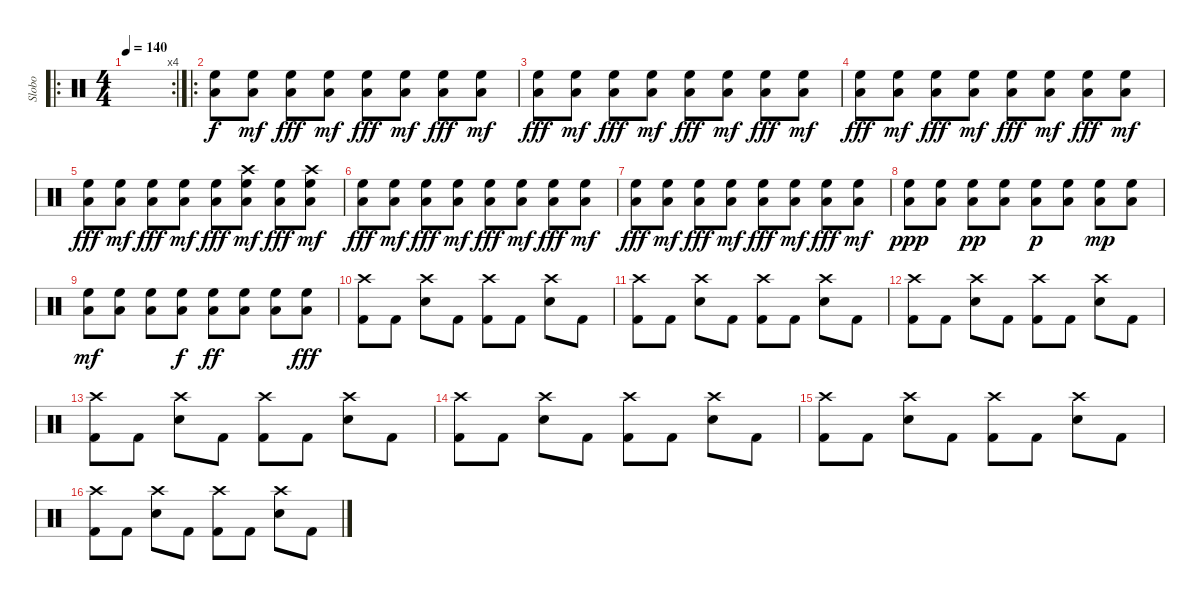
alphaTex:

\track ("Slobo" "Slobo") {instrument percussion}
\staff {score}
\articulation defaults
\ro
\rc 4
\ts (4 4)
\tempo 140
\clef neutral
\ks c
|
\ro
("High Floor Tom (hit)" "Low Floor Tom (hit)").8 ("High Floor Tom (hit)" "Low Floor Tom (hit)").8{dy mf} ("High Floor Tom (hit)" "Low Floor Tom (hit)").8{dy fff} ("High Floor Tom (hit)" "Low Floor Tom (hit)").8{dy mf} ("High Floor Tom (hit)" "Low Floor Tom (hit)").8{dy fff} ("High Floor Tom (hit)" "Low Floor Tom (hit)").8{dy mf} ("High Floor Tom (hit)" "Low Floor Tom (hit)").8{dy fff} ("High Floor Tom (hit)" "Low Floor Tom (hit)").8{dy mf} |
("High Floor Tom (hit)" "Low Floor Tom (hit)").8{dy fff} ("High Floor Tom (hit)" "Low Floor Tom (hit)").8{dy mf} ("High Floor Tom (hit)" "Low Floor Tom (hit)").8{dy fff} ("High Floor Tom (hit)" "Low Floor Tom (hit)").8{dy mf} ("High Floor Tom (hit)" "Low Floor Tom (hit)").8{dy fff} ("High Floor Tom (hit)" "Low Floor Tom (hit)").8{dy mf} ("High Floor Tom (hit)" "Low Floor Tom (hit)").8{dy fff} ("High Floor Tom (hit)" "Low Floor Tom (hit)").8{dy mf} |
("High Floor Tom (hit)" "Low Floor Tom (hit)").8{dy fff} ("High Floor Tom (hit)" "Low Floor Tom (hit)").8{dy mf} ("High Floor Tom (hit)" "Low Floor Tom (hit)").8{dy fff} ("High Floor Tom (hit)" "Low Floor Tom (hit)").8{dy mf} ("High Floor Tom (hit)" "Low Floor Tom (hit)").8{dy fff} ("High Floor Tom (hit)" "Low Floor Tom (hit)").8{dy mf} ("High Floor Tom (hit)" "Low Floor Tom (hit)").8{dy fff} ("High Floor Tom (hit)" "Low Floor Tom (hit)").8{dy mf} |
("High Floor Tom (hit)" "Low Floor Tom (hit)").8{dy fff} ("High Floor Tom (hit)" "Low Floor Tom (hit)").8{dy mf} ("High Floor Tom (hit)" "Low Floor Tom (hit)").8{dy fff} ("High Floor Tom (hit)" "Low Floor Tom (hit)").8{dy mf} ("High Floor Tom (hit)" "Low Floor Tom (hit)").8{dy fff} ("Crash high (hit)" "High Floor Tom (hit)" "Low Floor Tom (hit)").8{dy mf} ("High Floor Tom (hit)" "Low Floor Tom (hit)").8{dy fff} ("Crash high (hit)" "High Floor Tom (hit)" "Low Floor Tom (hit)").8{dy mf} |
("High Floor Tom (hit)" "Low Floor Tom (hit)").8{dy fff} ("High Floor Tom (hit)" "Low Floor Tom (hit)").8{dy mf} ("High Floor Tom (hit)" "Low Floor Tom (hit)").8{dy fff} ("High Floor Tom (hit)" "Low Floor Tom (hit)").8{dy mf} ("High Floor Tom (hit)" "Low Floor Tom (hit)").8{dy fff} ("High Floor Tom (hit)" "Low Floor Tom (hit)").8{dy mf} ("High Floor Tom (hit)" "Low Floor Tom (hit)").8{dy fff} ("High Floor Tom (hit)" "Low Floor Tom (hit)").8{dy mf} |
("High Floor Tom (hit)" "Low Floor Tom (hit)").8{dy fff} ("High Floor Tom (hit)" "Low Floor Tom (hit)").8{dy mf} ("High Floor Tom (hit)" "Low Floor Tom (hit)").8{dy fff} ("High Floor Tom (hit)" "Low Floor Tom (hit)").8{dy mf} ("High Floor Tom (hit)" "Low Floor Tom (hit)").8{dy fff} ("High Floor Tom (hit)" "Low Floor Tom (hit)").8{dy mf} ("High Floor Tom (hit)" "Low Floor Tom (hit)").8{dy fff} ("High Floor Tom (hit)" "Low Floor Tom (hit)").8{dy mf} |
("High Floor Tom (hit)" "Low Floor Tom (hit)").8{dy ppp} ("High Floor Tom (hit)" "Low Floor Tom (hit)").8 ("High Floor Tom (hit)" "Low Floor Tom (hit)").8{dy pp} ("High Floor Tom (hit)" "Low Floor Tom (hit)").8 ("High Floor Tom (hit)" "Low Floor Tom (hit)").8{dy p} ("High Floor Tom (hit)" "Low Floor Tom (hit)").8 ("High Floor Tom (hit)" "Low Floor Tom (hit)").8{dy mp} ("High Floor Tom (hit)" "Low Floor Tom (hit)").8 |
("High Floor Tom (hit)" "Low Floor Tom (hit)").8{dy mf} ("High Floor Tom (hit)" "Low Floor Tom (hit)").8 ("High Floor Tom (hit)" "Low Floor Tom (hit)").8 ("High Floor Tom (hit)" "Low Floor Tom (hit)").8{dy f} ("High Floor Tom (hit)" "Low Floor Tom (hit)").8{dy ff} ("High Floor Tom (hit)" "Low Floor Tom (hit)").8 ("High Floor Tom (hit)" "Low Floor Tom (hit)").8 ("High Floor Tom (hit)" "Low Floor Tom (hit)").8{dy fff} |
("Crash high (hit)" "Kick (hit) 2").8 "Kick (hit) 2".8 ("Crash high (hit)" "Snare (hit) 2").8 "Kick (hit) 2".8 ("Crash high (hit)" "Kick (hit) 2").8 "Kick (hit) 2".8 ("Crash high (hit)" "Snare (hit) 2").8 "Kick (hit) 2".8 |
("Crash high (hit)" "Kick (hit) 2").8 "Kick (hit) 2".8 ("Crash high (hit)" "Snare (hit) 2").8 "Kick (hit) 2".8 ("Crash high (hit)" "Kick (hit) 2").8 "Kick (hit) 2".8 ("Crash high (hit)" "Snare (hit) 2").8 "Kick (hit) 2".8 |
("Crash high (hit)" "Kick (hit) 2").8 "Kick (hit) 2".8 ("Crash high (hit)" "Snare (hit) 2").8 "Kick (hit) 2".8 ("Crash high (hit)" "Kick (hit) 2").8 "Kick (hit) 2".8 ("Crash high (hit)" "Snare (hit) 2").8 "Kick (hit) 2".8 |
("Crash high (hit)" "Kick (hit) 2").8 "Kick (hit) 2".8 ("Crash high (hit)" "Snare (hit) 2").8 "Kick (hit) 2".8 ("Crash high (hit)" "Kick (hit) 2").8 "Kick (hit) 2".8 ("Crash high (hit)" "Snare (hit) 2").8 "Kick (hit) 2".8 |
("Crash high (hit)" "Kick (hit) 2").8 "Kick (hit) 2".8 ("Crash high (hit)" "Snare (hit) 2").8 "Kick (hit) 2".8 ("Crash high (hit)" "Kick (hit) 2").8 "Kick (hit) 2".8 ("Crash high (hit)" "Snare (hit) 2").8 "Kick (hit) 2".8 |
("Crash high (hit)" "Kick (hit) 2").8 "Kick (hit) 2".8 ("Crash high (hit)" "Snare (hit) 2").8 "Kick (hit) 2".8 ("Crash high (hit)" "Kick (hit) 2").8 "Kick (hit) 2".8 ("Crash high (hit)" "Snare (hit) 2").8 "Kick (hit) 2".8 |
("Crash high (hit)" "Kick (hit) 2").8 "Kick (hit) 2".8 ("Crash high (hit)" "Snare (hit) 2").8 "Kick (hit) 2".8 ("Crash high (hit)" "Kick (hit) 2").8 "Kick (hit) 2".8 ("Crash high (hit)" "Snare (hit) 2").8 "Kick (hit) 2".8
